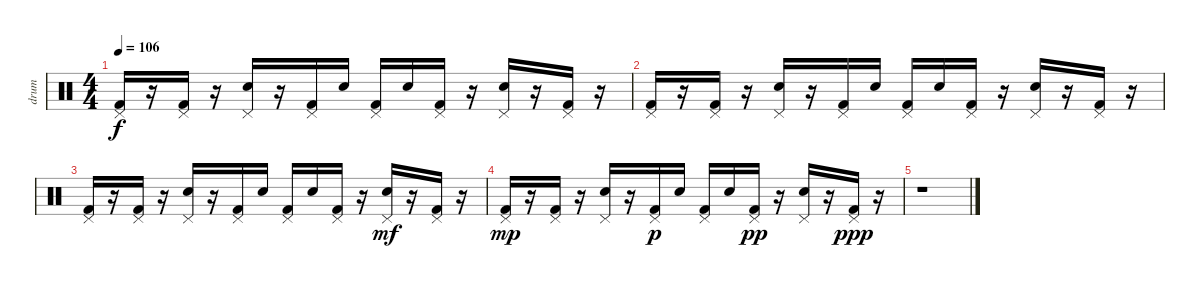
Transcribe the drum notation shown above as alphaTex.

\track ("drum" "drum") {instrument percussion}
\staff {score}
\articulation defaults
\ts (4 4)
\tempo 106
\clef neutral
\ks c
("Kick (hit) 2" "Pedal Hi-Hat (hit)").16{dy f} r.16 ("Kick (hit) 2" "Pedal Hi-Hat (hit)").16 r.16 ("Electric Snare (hit)" "Pedal Hi-Hat (hit)").16 r.16 ("Kick (hit) 2" "Pedal Hi-Hat (hit)").16 "Electric Snare (hit)".16 ("Kick (hit) 2" "Pedal Hi-Hat (hit)").16 "Electric Snare (hit)".16 ("Kick (hit) 2" "Pedal Hi-Hat (hit)").16 r.16 ("Electric Snare (hit)" "Pedal Hi-Hat (hit)").16 r.16 ("Kick (hit) 2" "Pedal Hi-Hat (hit)").16 r.16 |
("Kick (hit) 2" "Pedal Hi-Hat (hit)").16 r.16 ("Kick (hit) 2" "Pedal Hi-Hat (hit)").16 r.16 ("Electric Snare (hit)" "Pedal Hi-Hat (hit)").16 r.16 ("Kick (hit) 2" "Pedal Hi-Hat (hit)").16 "Electric Snare (hit)".16 ("Kick (hit) 2" "Pedal Hi-Hat (hit)").16 "Electric Snare (hit)".16 ("Kick (hit) 2" "Pedal Hi-Hat (hit)").16 r.16 ("Electric Snare (hit)" "Pedal Hi-Hat (hit)").16 r.16 ("Kick (hit) 2" "Pedal Hi-Hat (hit)").16 r.16 |
("Kick (hit) 2" "Pedal Hi-Hat (hit)").16 r.16 ("Kick (hit) 2" "Pedal Hi-Hat (hit)").16 r.16 ("Electric Snare (hit)" "Pedal Hi-Hat (hit)").16 r.16 ("Kick (hit) 2" "Pedal Hi-Hat (hit)").16 "Electric Snare (hit)".16 ("Kick (hit) 2" "Pedal Hi-Hat (hit)").16 "Electric Snare (hit)".16 ("Kick (hit) 2" "Pedal Hi-Hat (hit)").16 r.16 ("Electric Snare (hit)" "Pedal Hi-Hat (hit)").16{dy mf} r.16 ("Kick (hit) 2" "Pedal Hi-Hat (hit)").16 r.16 |
("Kick (hit) 2" "Pedal Hi-Hat (hit)").16{dy mp} r.16 ("Kick (hit) 2" "Pedal Hi-Hat (hit)").16 r.16 ("Electric Snare (hit)" "Pedal Hi-Hat (hit)").16 r.16 ("Kick (hit) 2" "Pedal Hi-Hat (hit)").16{dy p} "Electric Snare (hit)".16 ("Kick (hit) 2" "Pedal Hi-Hat (hit)").16 "Electric Snare (hit)".16 ("Kick (hit) 2" "Pedal Hi-Hat (hit)").16{dy pp} r.16 ("Electric Snare (hit)" "Pedal Hi-Hat (hit)").16 r.16 ("Kick (hit) 2" "Pedal Hi-Hat (hit)").16{dy ppp} r.16 |
r.1
